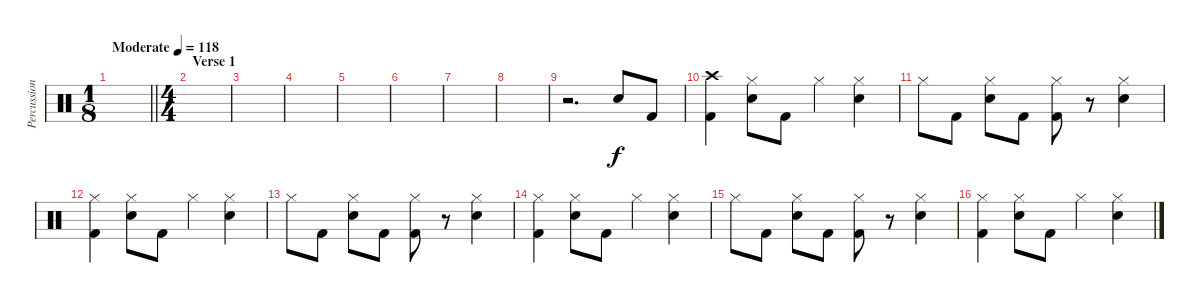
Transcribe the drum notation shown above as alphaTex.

\track ("Percussion" "Percussion") {instrument percussion}
\staff {score}
\articulation defaults
\ts (1 8)
\tempo (118 "Moderate")
\clef neutral
\barLineRight lightlight
\ks c
|
\ts (4 4)
\section ("" "Verse 1")
|
|
|
|
|
|
|
r.2{d} "Electric Snare (hit)".8 "Kick (hit) 2".8 |
("Crash high (hit)" "Kick (hit) 2").4 ("Hi-Hat (closed)" "Electric Snare (hit)").8 "Kick (hit) 2".8 "Hi-Hat (closed)".4 ("Hi-Hat (closed)" "Electric Snare (hit)").4 |
"Hi-Hat (closed)".8 "Kick (hit) 2".8 ("Hi-Hat (closed)" "Electric Snare (hit)").8 "Kick (hit) 2".8 ("Hi-Hat (closed)" "Kick (hit) 2").8 r.8 ("Hi-Hat (closed)" "Electric Snare (hit)").4 |
("Hi-Hat (closed)" "Kick (hit) 2").4 ("Hi-Hat (closed)" "Electric Snare (hit)").8 "Kick (hit) 2".8 "Hi-Hat (closed)".4 ("Hi-Hat (closed)" "Electric Snare (hit)").4 |
"Hi-Hat (closed)".8 "Kick (hit) 2".8 ("Hi-Hat (closed)" "Electric Snare (hit)").8 "Kick (hit) 2".8 ("Hi-Hat (closed)" "Kick (hit) 2").8 r.8 ("Hi-Hat (closed)" "Electric Snare (hit)").4 |
("Hi-Hat (closed)" "Kick (hit) 2").4 ("Hi-Hat (closed)" "Electric Snare (hit)").8 "Kick (hit) 2".8 "Hi-Hat (closed)".4 ("Hi-Hat (closed)" "Electric Snare (hit)").4 |
"Hi-Hat (closed)".8 "Kick (hit) 2".8 ("Hi-Hat (closed)" "Electric Snare (hit)").8 "Kick (hit) 2".8 ("Hi-Hat (closed)" "Kick (hit) 2").8 r.8 ("Hi-Hat (closed)" "Electric Snare (hit)").4 |
("Hi-Hat (closed)" "Kick (hit) 2").4 ("Hi-Hat (closed)" "Electric Snare (hit)").8 "Kick (hit) 2".8 "Hi-Hat (closed)".4 ("Hi-Hat (closed)" "Electric Snare (hit)").4
